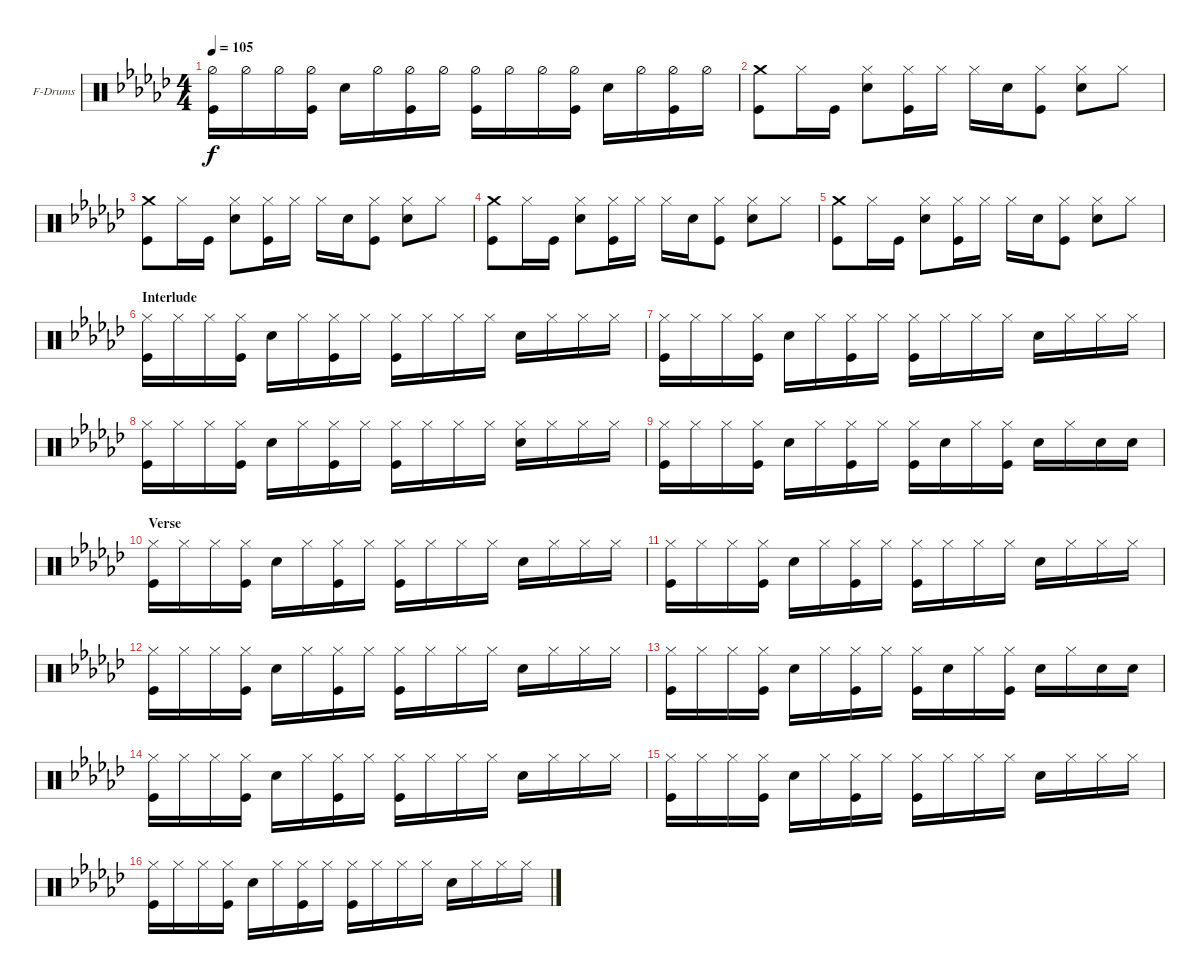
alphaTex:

\defaultSystemsLayout 4
\bracketExtendMode groupsimilarinstruments
\firstSystemTrackNameOrientation horizontal
\otherSystemsTrackNameOrientation horizontal
\track ("Fabrizio" "F-Drums") {instrument percussion}
\staff {score}
\articulation defaults
\ts (4 4)
\tempo 105
\clef neutral
\ks ebminor
("Kick (hit)" "Hi-Hat (half)").16{dy f} "Hi-Hat (half)".16 "Hi-Hat (half)".16 ("Kick (hit)" "Hi-Hat (half)").16 "Snare (hit) 2".16 "Hi-Hat (half)".16 ("Kick (hit)" "Hi-Hat (half)").16 "Hi-Hat (half)".16 ("Kick (hit)" "Hi-Hat (half)").16 "Hi-Hat (half)".16 "Hi-Hat (half)".16 ("Kick (hit)" "Hi-Hat (half)").16 "Snare (hit) 2".16 "Hi-Hat (half)".16 ("Kick (hit)" "Hi-Hat (half)").16 "Hi-Hat (half)".16 |
("Kick (hit)" "Crash medium (hit)").8 "Hi-Hat (closed)".16 "Kick (hit)".16 ("Snare (hit) 2" "Hi-Hat (closed)").8 ("Kick (hit)" "Hi-Hat (closed)").16 "Hi-Hat (closed)".16 "Hi-Hat (closed)".16 "Snare (hit) 2".16 ("Kick (hit)" "Hi-Hat (closed)").8 ("Snare (hit) 2" "Hi-Hat (closed)").8 "Hi-Hat (closed)".8 |
("Kick (hit)" "Crash medium (hit)").8 "Hi-Hat (closed)".16 "Kick (hit)".16 ("Snare (hit) 2" "Hi-Hat (closed)").8 ("Kick (hit)" "Hi-Hat (closed)").16 "Hi-Hat (closed)".16 "Hi-Hat (closed)".16 "Snare (hit) 2".16 ("Kick (hit)" "Hi-Hat (closed)").8 ("Snare (hit) 2" "Hi-Hat (closed)").8 "Hi-Hat (closed)".8 |
("Kick (hit)" "Crash medium (hit)").8 "Hi-Hat (closed)".16 "Kick (hit)".16 ("Snare (hit) 2" "Hi-Hat (closed)").8 ("Kick (hit)" "Hi-Hat (closed)").16 "Hi-Hat (closed)".16 "Hi-Hat (closed)".16 "Snare (hit) 2".16 ("Kick (hit)" "Hi-Hat (closed)").8 ("Snare (hit) 2" "Hi-Hat (closed)").8 "Hi-Hat (closed)".8 |
("Kick (hit)" "Crash medium (hit)").8 "Hi-Hat (closed)".16 "Kick (hit)".16 ("Snare (hit) 2" "Hi-Hat (closed)").8 ("Kick (hit)" "Hi-Hat (closed)").16 "Hi-Hat (closed)".16 "Hi-Hat (closed)".16 "Snare (hit) 2".16 ("Kick (hit)" "Hi-Hat (closed)").8 ("Snare (hit) 2" "Hi-Hat (closed)").8 "Hi-Hat (closed)".8 |
\section ("" "Interlude")
("Kick (hit)" "Hi-Hat (closed)").16 "Hi-Hat (closed)".16 "Hi-Hat (closed)".16 ("Kick (hit)" "Hi-Hat (closed)").16 "Snare (hit) 2".16 "Hi-Hat (closed)".16 ("Kick (hit)" "Hi-Hat (closed)").16 "Hi-Hat (closed)".16 ("Kick (hit)" "Hi-Hat (closed)").16 "Hi-Hat (closed)".16 "Hi-Hat (closed)".16 "Hi-Hat (closed)".16 "Snare (hit) 2".16 "Hi-Hat (closed)".16 "Hi-Hat (closed)".16 "Hi-Hat (closed)".16 |
("Kick (hit)" "Hi-Hat (closed)").16 "Hi-Hat (closed)".16 "Hi-Hat (closed)".16 ("Kick (hit)" "Hi-Hat (closed)").16 "Snare (hit) 2".16 "Hi-Hat (closed)".16 ("Kick (hit)" "Hi-Hat (closed)").16 "Hi-Hat (closed)".16 ("Kick (hit)" "Hi-Hat (closed)").16 "Hi-Hat (closed)".16 "Hi-Hat (closed)".16 "Hi-Hat (closed)".16 "Snare (hit) 2".16 "Hi-Hat (closed)".16 "Hi-Hat (closed)".16 "Hi-Hat (closed)".16 |
("Kick (hit)" "Hi-Hat (closed)").16 "Hi-Hat (closed)".16 "Hi-Hat (closed)".16 ("Kick (hit)" "Hi-Hat (closed)").16 "Snare (hit) 2".16 "Hi-Hat (closed)".16 ("Kick (hit)" "Hi-Hat (closed)").16 "Hi-Hat (closed)".16 ("Kick (hit)" "Hi-Hat (closed)").16 "Hi-Hat (closed)".16 "Hi-Hat (closed)".16 "Hi-Hat (closed)".16 ("Snare (hit) 2" "Hi-Hat (closed)").16 "Hi-Hat (closed)".16 "Hi-Hat (closed)".16 "Hi-Hat (closed)".16 |
("Kick (hit)" "Hi-Hat (closed)").16 "Hi-Hat (closed)".16 "Hi-Hat (closed)".16 ("Kick (hit)" "Hi-Hat (closed)").16 "Snare (hit) 2".16 "Hi-Hat (closed)".16 ("Kick (hit)" "Hi-Hat (closed)").16 "Hi-Hat (closed)".16 ("Kick (hit)" "Hi-Hat (closed)").16 "Snare (hit) 2".16 "Hi-Hat (closed)".16 ("Kick (hit)" "Hi-Hat (closed)").16 "Snare (hit) 2".16 "Hi-Hat (closed)".16 "Snare (hit) 2".16 "Snare (hit) 2".16 |
\section ("" "Verse")
("Kick (hit)" "Hi-Hat (closed)").16 "Hi-Hat (closed)".16 "Hi-Hat (closed)".16 ("Kick (hit)" "Hi-Hat (closed)").16 "Snare (hit) 2".16 "Hi-Hat (closed)".16 ("Kick (hit)" "Hi-Hat (closed)").16 "Hi-Hat (closed)".16 ("Kick (hit)" "Hi-Hat (closed)").16 "Hi-Hat (closed)".16 "Hi-Hat (closed)".16 "Hi-Hat (closed)".16 "Snare (hit) 2".16 "Hi-Hat (closed)".16 "Hi-Hat (closed)".16 "Hi-Hat (closed)".16 |
("Kick (hit)" "Hi-Hat (closed)").16 "Hi-Hat (closed)".16 "Hi-Hat (closed)".16 ("Kick (hit)" "Hi-Hat (closed)").16 "Snare (hit) 2".16 "Hi-Hat (closed)".16 ("Kick (hit)" "Hi-Hat (closed)").16 "Hi-Hat (closed)".16 ("Kick (hit)" "Hi-Hat (closed)").16 "Hi-Hat (closed)".16 "Hi-Hat (closed)".16 "Hi-Hat (closed)".16 "Snare (hit) 2".16 "Hi-Hat (closed)".16 "Hi-Hat (closed)".16 "Hi-Hat (closed)".16 |
("Kick (hit)" "Hi-Hat (closed)").16 "Hi-Hat (closed)".16 "Hi-Hat (closed)".16 ("Kick (hit)" "Hi-Hat (closed)").16 "Snare (hit) 2".16 "Hi-Hat (closed)".16 ("Kick (hit)" "Hi-Hat (closed)").16 "Hi-Hat (closed)".16 ("Kick (hit)" "Hi-Hat (closed)").16 "Hi-Hat (closed)".16 "Hi-Hat (closed)".16 "Hi-Hat (closed)".16 "Snare (hit) 2".16 "Hi-Hat (closed)".16 "Hi-Hat (closed)".16 "Hi-Hat (closed)".16 |
("Kick (hit)" "Hi-Hat (closed)").16 "Hi-Hat (closed)".16 "Hi-Hat (closed)".16 ("Kick (hit)" "Hi-Hat (closed)").16 "Snare (hit) 2".16 "Hi-Hat (closed)".16 ("Kick (hit)" "Hi-Hat (closed)").16 "Hi-Hat (closed)".16 ("Kick (hit)" "Hi-Hat (closed)").16 "Snare (hit) 2".16 "Hi-Hat (closed)".16 ("Kick (hit)" "Hi-Hat (closed)").16 "Snare (hit) 2".16 "Hi-Hat (closed)".16 "Snare (hit) 2".16 "Snare (hit) 2".16 |
("Kick (hit)" "Hi-Hat (closed)").16 "Hi-Hat (closed)".16 "Hi-Hat (closed)".16 ("Kick (hit)" "Hi-Hat (closed)").16 "Snare (hit) 2".16 "Hi-Hat (closed)".16 ("Kick (hit)" "Hi-Hat (closed)").16 "Hi-Hat (closed)".16 ("Kick (hit)" "Hi-Hat (closed)").16 "Hi-Hat (closed)".16 "Hi-Hat (closed)".16 "Hi-Hat (closed)".16 "Snare (hit) 2".16 "Hi-Hat (closed)".16 "Hi-Hat (closed)".16 "Hi-Hat (closed)".16 |
("Kick (hit)" "Hi-Hat (closed)").16 "Hi-Hat (closed)".16 "Hi-Hat (closed)".16 ("Kick (hit)" "Hi-Hat (closed)").16 "Snare (hit) 2".16 "Hi-Hat (closed)".16 ("Kick (hit)" "Hi-Hat (closed)").16 "Hi-Hat (closed)".16 ("Kick (hit)" "Hi-Hat (closed)").16 "Hi-Hat (closed)".16 "Hi-Hat (closed)".16 "Hi-Hat (closed)".16 "Snare (hit) 2".16 "Hi-Hat (closed)".16 "Hi-Hat (closed)".16 "Hi-Hat (closed)".16 |
("Kick (hit)" "Hi-Hat (closed)").16 "Hi-Hat (closed)".16 "Hi-Hat (closed)".16 ("Kick (hit)" "Hi-Hat (closed)").16 "Snare (hit) 2".16 "Hi-Hat (closed)".16 ("Kick (hit)" "Hi-Hat (closed)").16 "Hi-Hat (closed)".16 ("Kick (hit)" "Hi-Hat (closed)").16 "Hi-Hat (closed)".16 "Hi-Hat (closed)".16 "Hi-Hat (closed)".16 "Snare (hit) 2".16 "Hi-Hat (closed)".16 "Hi-Hat (closed)".16 "Hi-Hat (closed)".16
